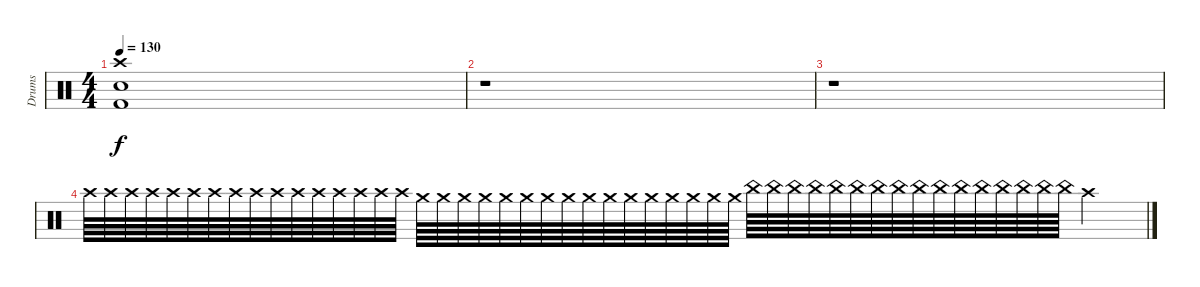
\track ("Drums" "Drums") {instrument percussion}
\staff {score}
\articulation defaults
\ts (4 4)
\tempo 130
\clef neutral
\ks c
("Crash high (hit)" "Electric Snare (hit)" "Kick (hit) 2").1{dy f} |
r.1 |
r.1 |
"Crash high (hit)".64 "Crash high (hit)".64 "Crash high (hit)".64 "Crash high (hit)".64 "Crash high (hit)".64 "Crash high (hit)".64 "Crash high (hit)".64 "Crash high (hit)".64 "Crash high (hit)".64 "Crash high (hit)".64 "Crash high (hit)".64 "Crash high (hit)".64 "Crash high (hit)".64 "Crash high (hit)".64 "Crash high (hit)".64 "Crash high (hit)".64 "Crash medium (hit)".64 "Crash medium (hit)".64 "Crash medium (hit)".64 "Crash medium (hit)".64 "Crash medium (hit)".64 "Crash medium (hit)".64 "Crash medium (hit)".64 "Crash medium (hit)".64 "Crash medium (hit)".64 "Crash medium (hit)".64 "Crash medium (hit)".64 "Crash medium (hit)".64 "Crash medium (hit)".64 "Crash medium (hit)".64 "Crash medium (hit)".64 "Crash medium (hit)".64 "China (hit)".64 "China (hit)".64 "China (hit)".64 "China (hit)".64 "China (hit)".64 "China (hit)".64 "China (hit)".64 "China (hit)".64 "China (hit)".64 "China (hit)".64 "China (hit)".64 "China (hit)".64 "China (hit)".64 "China (hit)".64 "China (hit)".64 "China (hit)".64 "Crash high (hit)".4
